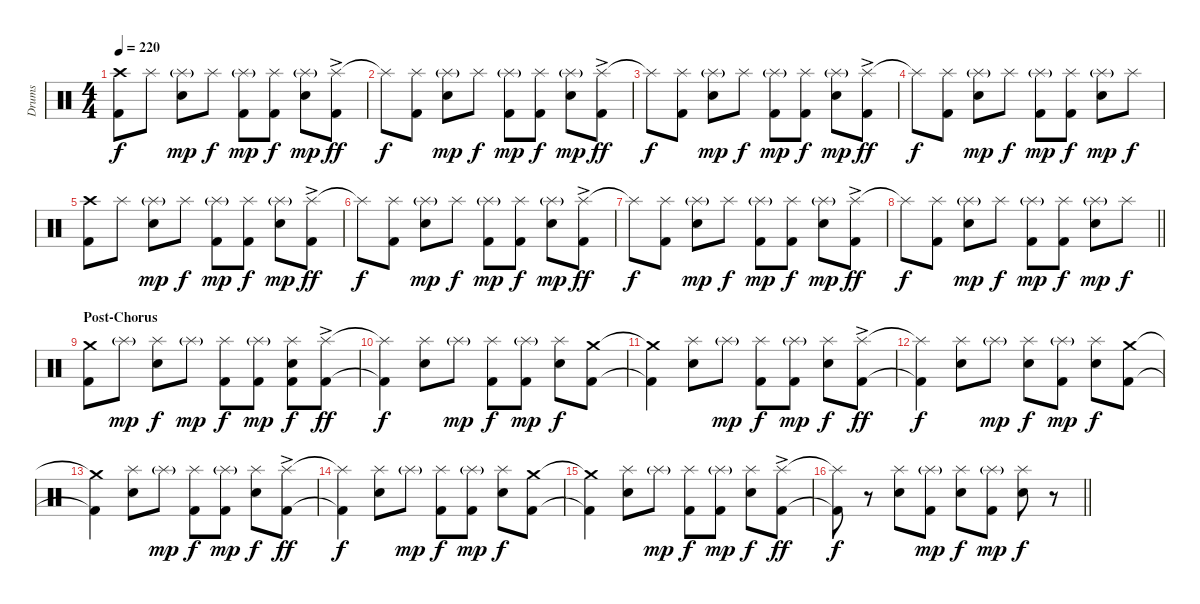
\track ("Drums" "Drums") {instrument percussion}
\staff {score}
\articulation defaults
\ts (4 4)
\tempo 220
\clef neutral
\ks c
("Crash high (hit)" "Kick (hit) 2").8{dy f} "Splash (hit)".8 ("Splash (hit)"{g} "Electric Snare (hit)").8{dy mp} "Splash (hit)".8{dy f} ("Splash (hit)"{g} "Kick (hit) 2").8{dy mp} ("Splash (hit)" "Kick (hit) 2").8{dy f} ("Splash (hit)"{g} "Electric Snare (hit)").8{dy mp} ("Splash (hit)"{ac} "Kick (hit) 2").8{dy ff} |
"Splash (hit)"{t}.8{dy f} ("Splash (hit)" "Kick (hit) 2").8 ("Splash (hit)"{g} "Electric Snare (hit)").8{dy mp} "Splash (hit)".8{dy f} ("Splash (hit)"{g} "Kick (hit) 2").8{dy mp} ("Splash (hit)" "Kick (hit) 2").8{dy f} ("Splash (hit)"{g} "Electric Snare (hit)").8{dy mp} ("Splash (hit)"{ac} "Kick (hit) 2").8{dy ff} |
"Splash (hit)"{t}.8{dy f} ("Splash (hit)" "Kick (hit) 2").8 ("Splash (hit)"{g} "Electric Snare (hit)").8{dy mp} "Splash (hit)".8{dy f} ("Splash (hit)"{g} "Kick (hit) 2").8{dy mp} ("Splash (hit)" "Kick (hit) 2").8{dy f} ("Splash (hit)"{g} "Electric Snare (hit)").8{dy mp} ("Splash (hit)"{ac} "Kick (hit) 2").8{dy ff} |
"Splash (hit)"{t}.8{dy f} ("Splash (hit)" "Kick (hit) 2").8 ("Splash (hit)"{g} "Electric Snare (hit)").8{dy mp} "Splash (hit)".8{dy f} ("Splash (hit)"{g} "Kick (hit) 2").8{dy mp} ("Splash (hit)" "Kick (hit) 2").8{dy f} ("Splash (hit)"{g} "Electric Snare (hit)").8{dy mp} "Splash (hit)".8{dy f} |
("Crash high (hit)" "Kick (hit) 2").8 "Splash (hit)".8 ("Splash (hit)"{g} "Electric Snare (hit)").8{dy mp} "Splash (hit)".8{dy f} ("Splash (hit)"{g} "Kick (hit) 2").8{dy mp} ("Splash (hit)" "Kick (hit) 2").8{dy f} ("Splash (hit)"{g} "Electric Snare (hit)").8{dy mp} ("Splash (hit)"{ac} "Kick (hit) 2").8{dy ff} |
"Splash (hit)"{t}.8{dy f} ("Splash (hit)" "Kick (hit) 2").8 ("Splash (hit)"{g} "Electric Snare (hit)").8{dy mp} "Splash (hit)".8{dy f} ("Splash (hit)"{g} "Kick (hit) 2").8{dy mp} ("Splash (hit)" "Kick (hit) 2").8{dy f} ("Splash (hit)"{g} "Electric Snare (hit)").8{dy mp} ("Splash (hit)"{ac} "Kick (hit) 2").8{dy ff} |
"Splash (hit)"{t}.8{dy f} ("Splash (hit)" "Kick (hit) 2").8 ("Splash (hit)"{g} "Electric Snare (hit)").8{dy mp} "Splash (hit)".8{dy f} ("Splash (hit)"{g} "Kick (hit) 2").8{dy mp} ("Splash (hit)" "Kick (hit) 2").8{dy f} ("Splash (hit)"{g} "Electric Snare (hit)").8{dy mp} ("Splash (hit)"{ac} "Kick (hit) 2").8{dy ff} |
\barLineRight lightlight "Splash (hit)"{t}.8{dy f}
("Splash (hit)" "Kick (hit) 2").8 ("Splash (hit)"{g} "Electric Snare (hit)").8{dy mp} "Splash (hit)".8{dy f} ("Splash (hit)"{g} "Kick (hit) 2").8{dy mp} ("Splash (hit)" "Kick (hit) 2").8{dy f} ("Splash (hit)"{g} "Electric Snare (hit)").8{dy mp} "Splash (hit)".8{dy f} |
\section ("" "Post-Chorus")
("Crash medium (hit)" "Kick (hit) 2").8 "Splash (hit)"{g}.8{dy mp} ("Splash (hit)" "Electric Snare (hit)").8{dy f} "Splash (hit)"{g}.8{dy mp} ("Splash (hit)" "Kick (hit) 2").8{dy f} ("Splash (hit)"{g} "Kick (hit) 2").8{dy mp} ("Splash (hit)" "Electric Snare (hit)" "Kick (hit) 2").8{dy f} ("Splash (hit)"{ac} "Kick (hit) 2").8{dy ff} |
("Splash (hit)"{t} "Kick (hit) 2"{t}).4{dy f} ("Splash (hit)" "Electric Snare (hit)").8 "Splash (hit)"{g}.8{dy mp} ("Splash (hit)" "Kick (hit) 2").8{dy f} ("Splash (hit)"{g} "Kick (hit) 2").8{dy mp} ("Splash (hit)" "Electric Snare (hit)").8{dy f} ("Crash medium (hit)" "Kick (hit) 2").8 |
("Crash medium (hit)"{t} "Kick (hit) 2"{t}).4 ("Splash (hit)" "Electric Snare (hit)").8 "Splash (hit)"{g}.8{dy mp} ("Splash (hit)" "Kick (hit) 2").8{dy f} ("Splash (hit)"{g} "Kick (hit) 2").8{dy mp} ("Splash (hit)" "Electric Snare (hit)").8{dy f} ("Splash (hit)"{ac} "Kick (hit) 2").8{dy ff} |
("Splash (hit)"{t} "Kick (hit) 2"{t}).4{dy f} ("Splash (hit)" "Electric Snare (hit)").8 "Splash (hit)"{g}.8{dy mp} ("Splash (hit)" "Electric Snare (hit)").8{dy f} ("Splash (hit)"{g} "Kick (hit) 2").8{dy mp} ("Splash (hit)" "Electric Snare (hit)").8{dy f} ("Crash medium (hit)" "Kick (hit) 2").8 |
("Crash medium (hit)"{t} "Kick (hit) 2"{t}).4 ("Splash (hit)" "Electric Snare (hit)").8 "Splash (hit)"{g}.8{dy mp} ("Splash (hit)" "Kick (hit) 2").8{dy f} ("Splash (hit)"{g} "Kick (hit) 2").8{dy mp} ("Splash (hit)" "Electric Snare (hit)").8{dy f} ("Splash (hit)"{ac} "Kick (hit) 2").8{dy ff} |
("Splash (hit)"{t} "Kick (hit) 2"{t}).4{dy f} ("Splash (hit)" "Electric Snare (hit)").8 "Splash (hit)"{g}.8{dy mp} ("Splash (hit)" "Kick (hit) 2").8{dy f} ("Splash (hit)"{g} "Kick (hit) 2").8{dy mp} ("Splash (hit)" "Electric Snare (hit)").8{dy f} ("Crash medium (hit)" "Kick (hit) 2").8 |
("Crash medium (hit)"{t} "Kick (hit) 2"{t}).4 ("Splash (hit)" "Electric Snare (hit)").8 "Splash (hit)"{g}.8{dy mp} ("Splash (hit)" "Kick (hit) 2").8{dy f} ("Splash (hit)"{g} "Kick (hit) 2").8{dy mp} ("Splash (hit)" "Electric Snare (hit)").8{dy f} ("Splash (hit)"{ac} "Kick (hit) 2").8{dy ff} |
\barLineRight lightlight
("Splash (hit)"{t} "Kick (hit) 2"{t}).8{dy f} r.8 ("Splash (hit)" "Electric Snare (hit)").8 ("Splash (hit)"{g} "Kick (hit) 2").8{dy mp} ("Splash (hit)" "Electric Snare (hit)").8{dy f} ("Splash (hit)"{g} "Kick (hit) 2").8{dy mp} ("Splash (hit)" "Electric Snare (hit)").8{dy f} r.8
